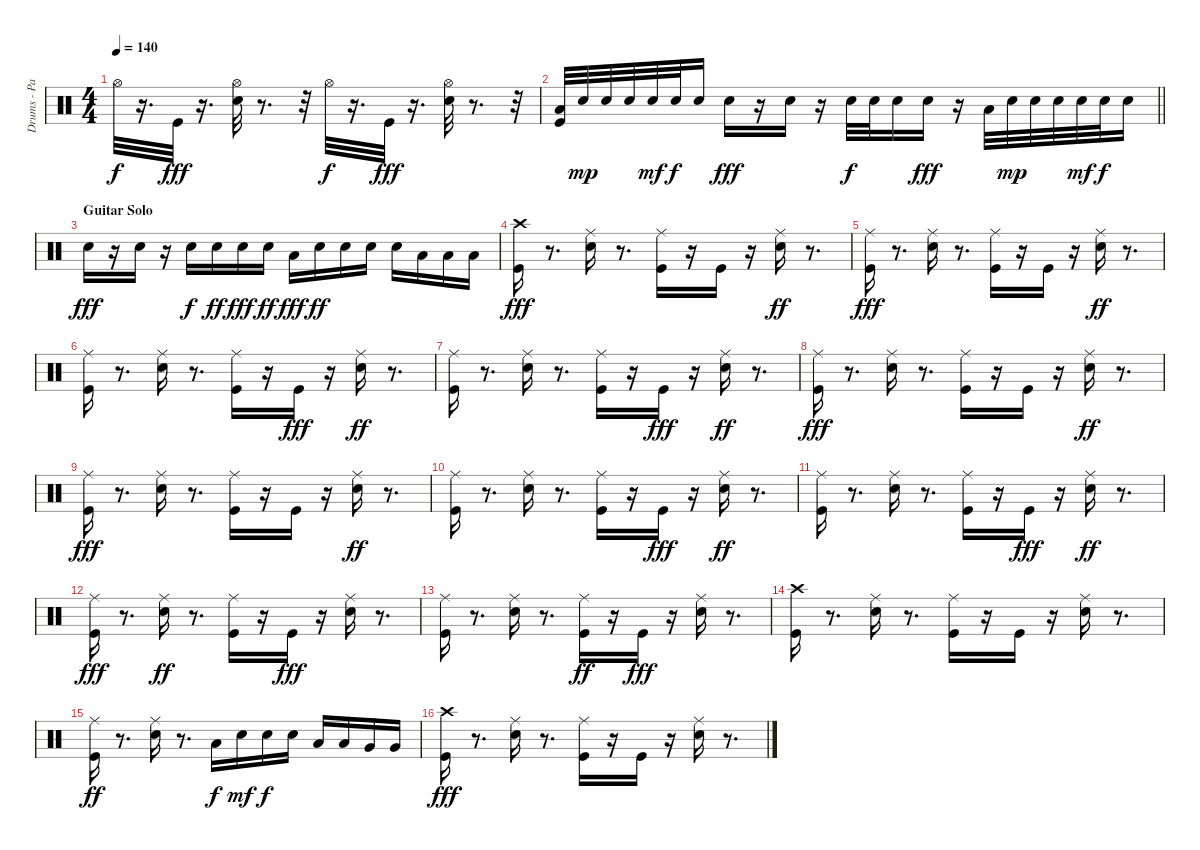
\track ("Drums - Paice" "Drums - Pa") {instrument percussion}
\staff {score}
\articulation defaults
\ts (4 4)
\tempo 140
\clef neutral
\ks c "Hi-Hat (open)".32{dy f}
r.16{d} "Kick (hit)".32{dy fff} r.16{d} ("Snare (hit) 2" "Hi-Hat (open)").32 r.8{d} r.32 "Hi-Hat (open)".32{dy f} r.16{d} "Kick (hit)".32{dy fff} r.16{d} ("Snare (hit) 2" "Hi-Hat (open)").32 r.8{d} r.32 |
\barLineRight lightlight
("Kick (hit)" "Low Tom (hit)").32 "Snare (hit) 2".32{dy mp} "Snare (hit) 2".32 "Snare (hit) 2".32 "Snare (hit) 2".32{dy mf} "Snare (hit) 2".32{dy f} "Snare (hit) 2".16 "Snare (hit) 2".16{dy fff} r.16 "Snare (hit) 2".16 r.16 "Snare (hit) 2".32{dy f} "Snare (hit) 2".32 "Snare (hit) 2".16 "Snare (hit) 2".16{dy fff} r.16 "Low Tom (hit)".32 "Snare (hit) 2".32{dy mp} "Snare (hit) 2".32 "Snare (hit) 2".32 "Snare (hit) 2".32{dy mf} "Snare (hit) 2".32{dy f} "Snare (hit) 2".16 |
\section ("" "Guitar Solo")
"Snare (hit) 2".16{dy fff} r.16 "Snare (hit) 2".16 r.16 "Snare (hit) 2".16{dy f} "Snare (hit) 2".16{dy ff} "Snare (hit) 2".16{dy fff} "Snare (hit) 2".16{dy ff} "Low Tom (hit)".16{dy fff} "Snare (hit) 2".16{dy ff} "Snare (hit) 2".16 "Snare (hit) 2".16 "Snare (hit) 2".16 "Low Tom (hit)".16 "Low Tom (hit)".16 "Low Tom (hit)".16 |
("Crash high (hit)" "Kick (hit)").16{dy fff} r.8{d} ("Ride (middle)" "Snare (hit) 2").16 r.8{d} ("Ride (middle)" "Kick (hit)").16 r.16 "Kick (hit)".16 r.16 ("Snare (hit) 2" "Ride (middle)").16{dy ff} r.8{d} |
("Ride (middle)" "Kick (hit)").16{dy fff} r.8{d} ("Ride (middle)" "Snare (hit) 2").16 r.8{d} ("Ride (middle)" "Kick (hit)").16 r.16 "Kick (hit)".16 r.16 ("Snare (hit) 2" "Ride (middle)").16{dy ff} r.8{d} |
("Kick (hit)" "Ride (middle)").16 r.8{d} ("Snare (hit) 2" "Ride (middle)").16 r.8{d} ("Kick (hit)" "Ride (middle)").16 r.16 "Kick (hit)".16{dy fff} r.16 ("Snare (hit) 2" "Ride (middle)").16{dy ff} r.8{d} |
("Kick (hit)" "Ride (middle)").16 r.8{d} ("Snare (hit) 2" "Ride (middle)").16 r.8{d} ("Kick (hit)" "Ride (middle)").16 r.16 "Kick (hit)".16{dy fff} r.16 ("Snare (hit) 2" "Ride (middle)").16{dy ff} r.8{d} |
("Ride (middle)" "Kick (hit)").16{dy fff} r.8{d} ("Ride (middle)" "Snare (hit) 2").16 r.8{d} ("Ride (middle)" "Kick (hit)").16 r.16 "Kick (hit)".16 r.16 ("Snare (hit) 2" "Ride (middle)").16{dy ff} r.8{d} |
("Ride (middle)" "Kick (hit)").16{dy fff} r.8{d} ("Ride (middle)" "Snare (hit) 2").16 r.8{d} ("Ride (middle)" "Kick (hit)").16 r.16 "Kick (hit)".16 r.16 ("Snare (hit) 2" "Ride (middle)").16{dy ff} r.8{d} |
("Kick (hit)" "Ride (middle)").16 r.8{d} ("Snare (hit) 2" "Ride (middle)").16 r.8{d} ("Kick (hit)" "Ride (middle)").16 r.16 "Kick (hit)".16{dy fff} r.16 ("Snare (hit) 2" "Ride (middle)").16{dy ff} r.8{d} |
("Kick (hit)" "Ride (middle)").16 r.8{d} ("Snare (hit) 2" "Ride (middle)").16 r.8{d} ("Kick (hit)" "Ride (middle)").16 r.16 "Kick (hit)".16{dy fff} r.16 ("Snare (hit) 2" "Ride (middle)").16{dy ff} r.8{d} |
("Ride (middle)" "Kick (hit)").16{dy fff} r.8{d} ("Snare (hit) 2" "Ride (middle)").16{dy ff} r.8{d} ("Kick (hit)" "Ride (middle)").16 r.16 "Kick (hit)".16{dy fff} r.16 ("Ride (middle)" "Snare (hit) 2").16 r.8{d} |
("Ride (middle)" "Kick (hit)").16 r.8{d} ("Ride (middle)" "Snare (hit) 2").16 r.8{d} ("Kick (hit)" "Ride (middle)").16{dy ff} r.16 "Kick (hit)".16{dy fff} r.16 ("Ride (middle)" "Snare (hit) 2").16 r.8{d} |
("Kick (hit)" "Crash high (hit)").16 r.8{d} ("Ride (middle)" "Snare (hit) 2").16 r.8{d} ("Ride (middle)" "Kick (hit)").16 r.16 "Kick (hit)".16 r.16 ("Ride (middle)" "Snare (hit) 2").16 r.8{d} |
("Kick (hit)" "Ride (middle)").16{dy ff} r.8{d} ("Snare (hit) 2" "Ride (middle)").16 r.8{d} "Low Tom (hit)".16{dy f} "Snare (hit) 2".16{dy mf} "Snare (hit) 2".16{dy f} "Snare (hit) 2".16 "Low Tom (hit)".16 "Low Tom (hit)".16 "Very Low Tom (hit)".16 "Very Low Tom (hit)".16 |
("Kick (hit)" "Crash high (hit)").16{dy fff} r.8{d} ("Ride (middle)" "Snare (hit) 2").16 r.8{d} ("Ride (middle)" "Kick (hit)").16 r.16 "Kick (hit)".16 r.16 ("Ride (middle)" "Snare (hit) 2").16 r.8{d}
